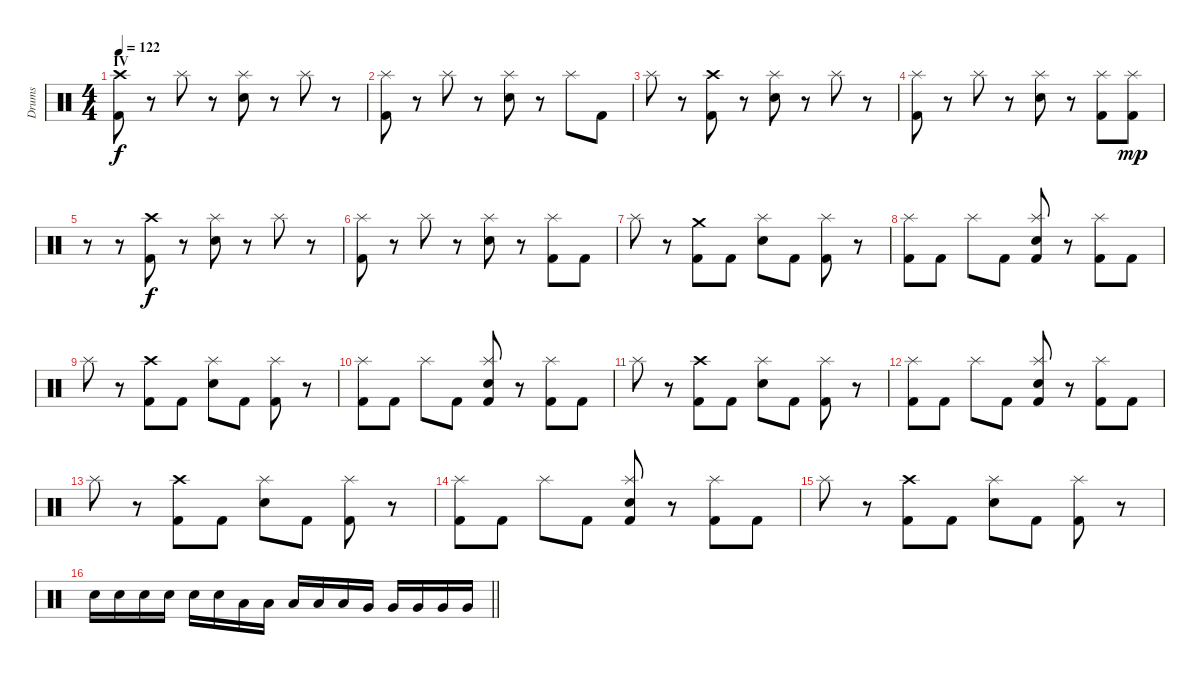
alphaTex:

\track ("Drums" "Drums") {instrument percussion}
\staff {score}
\articulation defaults
\ts (4 4)
\section ("" "IV")
\tempo 122
\clef neutral
\ks c
("Kick (hit) 2" "Crash high (hit)").8{dy f} r.8 "Splash (hit)".8 r.8 ("Splash (hit)" "Snare (hit) 2").8 r.8 "Splash (hit)".8 r.8 |
("Kick (hit) 2" "Splash (hit)").8 r.8 "Splash (hit)".8 r.8 ("Splash (hit)" "Snare (hit) 2").8 r.8 "Splash (hit)".8 "Kick (hit) 2".8 |
"Splash (hit)".8 r.8 ("Kick (hit) 2" "Crash high (hit)").8 r.8 ("Splash (hit)" "Snare (hit) 2").8 r.8 "Splash (hit)".8 r.8 |
("Kick (hit) 2" "Splash (hit)").8 r.8 "Splash (hit)".8 r.8 ("Splash (hit)" "Snare (hit) 2").8 r.8 ("Kick (hit) 2" "Splash (hit)").8 ("Kick (hit) 2" "Splash (hit)").8{dy mp} |
r.8 r.8 ("Kick (hit) 2" "Crash high (hit)").8{dy f} r.8 ("Splash (hit)" "Snare (hit) 2").8 r.8 "Splash (hit)".8 r.8 |
("Kick (hit) 2" "Splash (hit)").8 r.8 "Splash (hit)".8 r.8 ("Splash (hit)" "Snare (hit) 2").8 r.8 ("Kick (hit) 2" "Splash (hit)").8 "Kick (hit) 2".8 |
"Splash (hit)".8 r.8 ("Kick (hit) 2" "Crash medium (hit)").8 "Kick (hit) 2".8 ("Splash (hit)" "Snare (hit) 2").8 "Kick (hit) 2".8 ("Kick (hit) 2" "Splash (hit)").8 r.8 |
("Kick (hit) 2" "Splash (hit)").8 "Kick (hit) 2".8 "Splash (hit)".8 "Kick (hit) 2".8 ("Kick (hit) 2" "Splash (hit)" "Snare (hit) 2").8 r.8 ("Kick (hit) 2" "Splash (hit)").8 "Kick (hit) 2".8 |
"Splash (hit)".8 r.8 ("Kick (hit) 2" "Crash high (hit)").8 "Kick (hit) 2".8 ("Splash (hit)" "Snare (hit) 2").8 "Kick (hit) 2".8 ("Kick (hit) 2" "Splash (hit)").8 r.8 |
("Kick (hit) 2" "Splash (hit)").8 "Kick (hit) 2".8 "Splash (hit)".8 "Kick (hit) 2".8 ("Kick (hit) 2" "Splash (hit)" "Snare (hit) 2").8 r.8 ("Kick (hit) 2" "Splash (hit)").8 "Kick (hit) 2".8 |
"Splash (hit)".8 r.8 ("Kick (hit) 2" "Crash high (hit)").8 "Kick (hit) 2".8 ("Splash (hit)" "Snare (hit) 2").8 "Kick (hit) 2".8 ("Kick (hit) 2" "Splash (hit)").8 r.8 |
("Kick (hit) 2" "Splash (hit)").8 "Kick (hit) 2".8 "Splash (hit)".8 "Kick (hit) 2".8 ("Kick (hit) 2" "Splash (hit)" "Snare (hit) 2").8 r.8 ("Kick (hit) 2" "Splash (hit)").8 "Kick (hit) 2".8 |
"Splash (hit)".8 r.8 ("Kick (hit) 2" "Crash high (hit)").8 "Kick (hit) 2".8 ("Splash (hit)" "Snare (hit) 2").8 "Kick (hit) 2".8 ("Kick (hit) 2" "Splash (hit)").8 r.8 |
("Kick (hit) 2" "Splash (hit)").8 "Kick (hit) 2".8 "Splash (hit)".8 "Kick (hit) 2".8 ("Kick (hit) 2" "Splash (hit)" "Snare (hit) 2").8 r.8 ("Kick (hit) 2" "Splash (hit)").8 "Kick (hit) 2".8 |
"Splash (hit)".8 r.8 ("Kick (hit) 2" "Crash high (hit)").8 "Kick (hit) 2".8 ("Splash (hit)" "Snare (hit) 2").8 "Kick (hit) 2".8 ("Kick (hit) 2" "Splash (hit)").8 r.8 |
\barLineRight lightlight "Snare (hit) 2".16 "Snare (hit) 2".16 "Snare (hit) 2".16 "Snare (hit) 2".16 "Snare (hit) 2".16 "Snare (hit) 2".16 "Low Tom (hit)".16 "Low Tom (hit)".16 "Low Tom (hit)".16 "Low Tom (hit)".16 "Low Tom (hit)".16 "Very Low Tom (hit)".16 "Very Low Tom (hit)".16 "Very Low Tom (hit)".16 "Very Low Tom (hit)".16 "Very Low Tom (hit)".16
